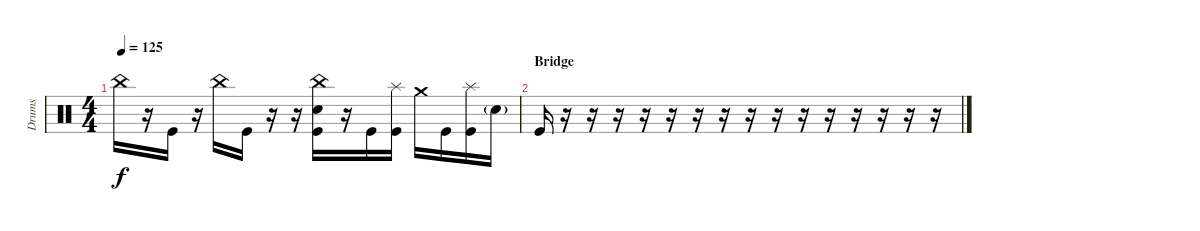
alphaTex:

\track ("Drums" "Drums") {instrument percussion}
\staff {score}
\articulation defaults
\ts (4 4)
\tempo 125
\clef neutral
\ks c "China (hit)".16{dy f}
r.16 "Kick (hit)".16 r.16 "China (hit)".16 "Kick (hit)".16 r.16 r.16 ("Kick (hit)" "Snare (hit) 2" "China (hit)").16 r.16 "Kick (hit)".16 ("Kick (hit)" "Splash (hit)").16 "Crash medium (hit)".16 "Kick (hit)".16 ("Kick (hit)" "Splash (hit)").16 "Snare (hit) 2"{g}.16 |
\section ("" "Bridge")
"Kick (hit)".16 r.16 r.16 r.16 r.16 r.16 r.16 r.16 r.16 r.16 r.16 r.16 r.16 r.16 r.16 r.16
